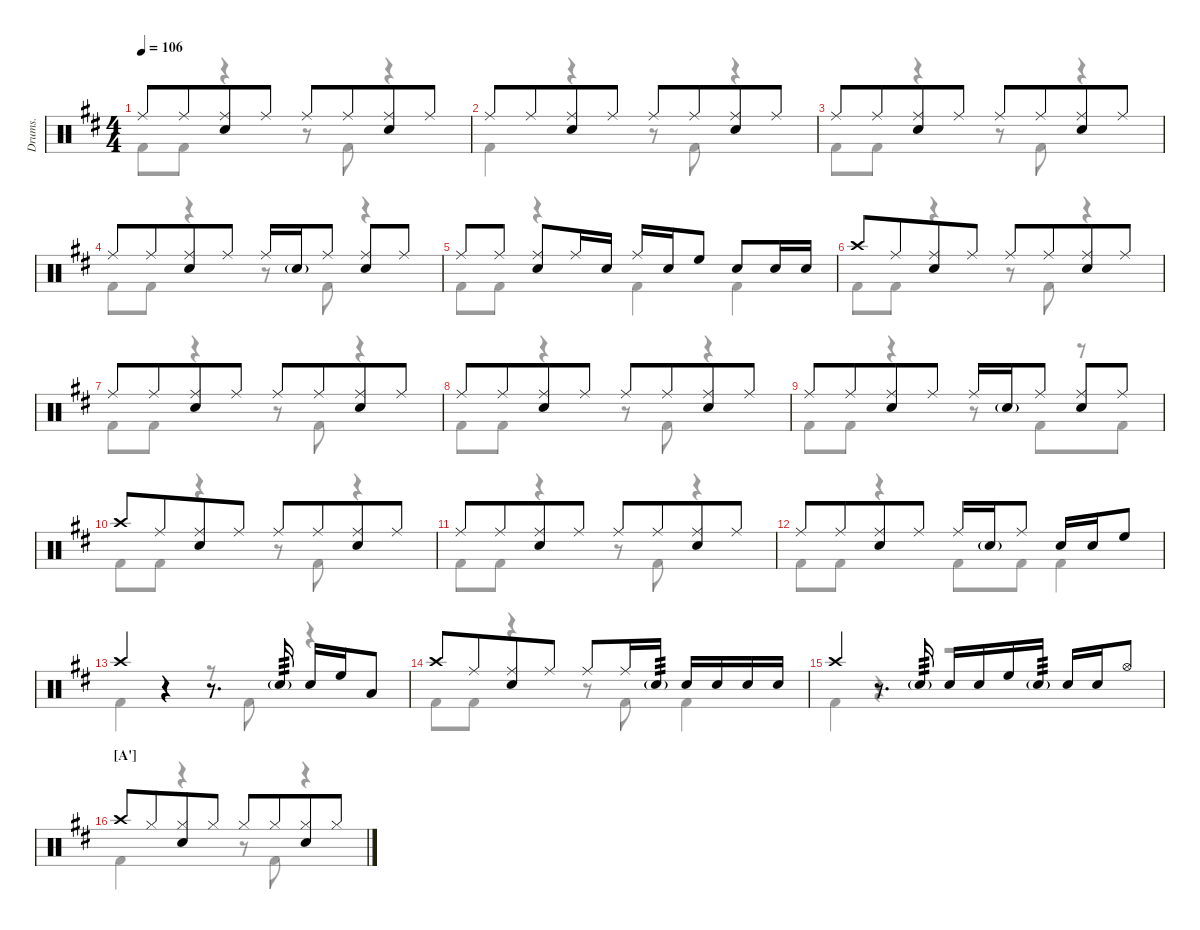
\defaultSystemsLayout 4
\hideDynamics
\track ("Drumkit" "Drums.") {defaultSystemsLayout 4 instrument percussion}
\staff {score}
\articulation defaults
\voice
\ts (4 4)
\tempo 106
\clef neutral
\ks d "Ride (middle)"{acc forcenatural}.8{dy mf beam merge} "Ride (middle)"{acc forcenatural}.8{beam merge}
("Ride (middle)"{acc forcenatural} "Snare (hit) 2"{acc forcenatural}).8 "Ride (middle)"{acc forcenatural}.8 "Ride (middle)"{acc forcenatural}.8{beam merge} "Ride (middle)"{acc forcenatural}.8{beam merge} ("Ride (middle)"{acc forcenatural} "Snare (hit) 2"{acc forcenatural}).8 "Ride (middle)"{acc forcenatural}.8 |
"Ride (middle)"{acc forcenatural}.8{beam merge} "Ride (middle)"{acc forcenatural}.8{beam merge} ("Ride (middle)"{acc forcenatural} "Snare (hit) 2"{acc forcenatural}).8 "Ride (middle)"{acc forcenatural}.8 "Ride (middle)"{acc forcenatural}.8{beam merge} "Ride (middle)"{acc forcenatural}.8{beam merge} ("Ride (middle)"{acc forcenatural} "Snare (hit) 2"{acc forcenatural}).8 "Ride (middle)"{acc forcenatural}.8 |
"Ride (middle)"{acc forcenatural}.8{beam merge} "Ride (middle)"{acc forcenatural}.8{beam merge} ("Ride (middle)"{acc forcenatural} "Snare (hit) 2"{acc forcenatural}).8 "Ride (middle)"{acc forcenatural}.8 "Ride (middle)"{acc forcenatural}.8{beam merge} "Ride (middle)"{acc forcenatural}.8{beam merge} ("Ride (middle)"{acc forcenatural} "Snare (hit) 2"{acc forcenatural}).8 "Ride (middle)"{acc forcenatural}.8 |
"Ride (middle)"{acc forcenatural}.8{beam merge} "Ride (middle)"{acc forcenatural}.8{beam merge} ("Ride (middle)"{acc forcenatural} "Snare (hit) 2"{acc forcenatural}).8 "Ride (middle)"{acc forcenatural}.8 "Ride (middle)"{acc forcenatural}.16 "Snare (hit) 2"{g acc forcenatural}.16 "Ride (middle)"{acc forcenatural}.8 ("Ride (middle)"{acc forcenatural} "Snare (hit) 2"{acc forcenatural}).8 "Ride (middle)"{acc forcenatural}.8 |
"Ride (middle)"{acc forcenatural}.8 "Ride (middle)"{acc forcenatural}.8 ("Ride (middle)"{acc forcenatural} "Snare (hit) 2"{acc forcenatural}).8 "Ride (middle)"{acc forcenatural}.16 "Snare (hit) 2"{acc forcenatural}.16 "Ride (middle)"{acc forcenatural}.16 "Snare (hit) 2"{acc forcenatural}.16 "High Floor Tom (hit)"{acc forcenatural}.8 "Snare (hit) 2"{acc forcenatural}.8 "Snare (hit) 2"{acc forcenatural}.16 "Snare (hit) 2"{acc forcenatural}.16 |
"Crash high (hit)"{acc forcenatural}.8{beam merge} "Ride (middle)"{acc forcenatural}.8{beam merge} ("Ride (middle)"{acc forcenatural} "Snare (hit) 2"{acc forcenatural}).8 "Ride (middle)"{acc forcenatural}.8 "Ride (middle)"{acc forcenatural}.8{beam merge} "Ride (middle)"{acc forcenatural}.8{beam merge} ("Ride (middle)"{acc forcenatural} "Snare (hit) 2"{acc forcenatural}).8 "Ride (middle)"{acc forcenatural}.8 |
"Ride (middle)"{acc forcenatural}.8{beam merge} "Ride (middle)"{acc forcenatural}.8{beam merge} ("Ride (middle)"{acc forcenatural} "Snare (hit) 2"{acc forcenatural}).8 "Ride (middle)"{acc forcenatural}.8 "Ride (middle)"{acc forcenatural}.8{beam merge} "Ride (middle)"{acc forcenatural}.8{beam merge} ("Ride (middle)"{acc forcenatural} "Snare (hit) 2"{acc forcenatural}).8 "Ride (middle)"{acc forcenatural}.8 |
"Ride (middle)"{acc forcenatural}.8{beam merge} "Ride (middle)"{acc forcenatural}.8{beam merge} ("Ride (middle)"{acc forcenatural} "Snare (hit) 2"{acc forcenatural}).8 "Ride (middle)"{acc forcenatural}.8 "Ride (middle)"{acc forcenatural}.8{beam merge} "Ride (middle)"{acc forcenatural}.8{beam merge} ("Ride (middle)"{acc forcenatural} "Snare (hit) 2"{acc forcenatural}).8 "Ride (middle)"{acc forcenatural}.8 |
"Ride (middle)"{acc forcenatural}.8{beam merge} "Ride (middle)"{acc forcenatural}.8{beam merge} ("Ride (middle)"{acc forcenatural} "Snare (hit) 2"{acc forcenatural}).8 "Ride (middle)"{acc forcenatural}.8 "Ride (middle)"{acc forcenatural}.16{beam merge} "Snare (hit) 2"{g acc forcenatural}.16 "Ride (middle)"{acc forcenatural}.8{beam split} ("Ride (middle)"{acc forcenatural} "Snare (hit) 2"{acc forcenatural}).8 "Ride (middle)"{acc forcenatural}.8 |
"Crash high (hit)"{acc forcenatural}.8{beam merge} "Ride (middle)"{acc forcenatural}.8{beam merge} ("Ride (middle)"{acc forcenatural} "Snare (hit) 2"{acc forcenatural}).8 "Ride (middle)"{acc forcenatural}.8 "Ride (middle)"{acc forcenatural}.8{beam merge} "Ride (middle)"{acc forcenatural}.8{beam merge} ("Ride (middle)"{acc forcenatural} "Snare (hit) 2"{acc forcenatural}).8 "Ride (middle)"{acc forcenatural}.8 |
"Ride (middle)"{acc forcenatural}.8{beam merge} "Ride (middle)"{acc forcenatural}.8{beam merge} ("Ride (middle)"{acc forcenatural} "Snare (hit) 2"{acc forcenatural}).8 "Ride (middle)"{acc forcenatural}.8 "Ride (middle)"{acc forcenatural}.8{beam merge} "Ride (middle)"{acc forcenatural}.8{beam merge} ("Ride (middle)"{acc forcenatural} "Snare (hit) 2"{acc forcenatural}).8 "Ride (middle)"{acc forcenatural}.8 |
"Ride (middle)"{acc forcenatural}.8{beam merge} "Ride (middle)"{acc forcenatural}.8{beam merge} ("Ride (middle)"{acc forcenatural} "Snare (hit) 2"{acc forcenatural}).8 "Ride (middle)"{acc forcenatural}.8 "Ride (middle)"{acc forcenatural}.16 "Snare (hit) 2"{g acc forcenatural}.16 "Ride (middle)"{acc forcenatural}.8 "Snare (hit) 2"{acc forcenatural}.16 "Snare (hit) 2"{acc forcenatural}.16 "High Floor Tom (hit)"{acc forcenatural}.8 |
"Crash high (hit)"{acc forcenatural}.4 r.4 r.8{d} "Snare (hit) 2"{g acc forcenatural}.16{tp 3} "Snare (hit) 2"{acc forcenatural}.16 "High Floor Tom (hit)"{acc forcenatural}.16 "Low Tom (hit)"{acc forcenatural}.8 |
"Crash high (hit)"{acc forcenatural}.8{beam merge} "Ride (middle)"{acc forcenatural}.8{beam merge} ("Ride (middle)"{acc forcenatural} "Snare (hit) 2"{acc forcenatural}).8 "Ride (middle)"{acc forcenatural}.8 "Ride (middle)"{acc forcenatural}.8 "Ride (middle)"{acc forcenatural}.16 "Snare (hit) 2"{g acc forcenatural}.16{tp 3} "Snare (hit) 2"{acc forcenatural}.16 "Snare (hit) 2"{acc forcenatural}.16 "Snare (hit) 2"{acc forcenatural}.16 "Snare (hit) 2"{acc forcenatural}.16 |
"Crash high (hit)"{acc forcenatural}.4 r.8{d} "Snare (hit) 2"{g acc forcenatural}.16{tp 3} "Snare (hit) 2"{acc forcenatural}.16 "Snare (hit) 2"{acc forcenatural}.16 "High Floor Tom (hit)"{acc forcenatural}.16 "Snare (hit) 2"{g acc forcenatural}.16{tp 3} "Snare (hit) 2"{acc forcenatural}.16 "Snare (hit) 2"{acc forcenatural}.16 "Hi-Hat (open)"{acc forcenatural}.8 |
\section ("A'" "")
"Crash high (hit)"{acc forcenatural}.8 "Hi-Hat (closed)"{acc forcenatural}.8{beam merge} ("Hi-Hat (closed)"{acc forcenatural} "Snare (hit) 2"{acc forcenatural}).8 "Hi-Hat (closed)"{acc forcenatural}.8 "Hi-Hat (closed)"{acc forcenatural}.8 "Hi-Hat (closed)"{acc forcenatural}.8{beam merge} ("Hi-Hat (closed)"{acc forcenatural} "Snare (hit) 2"{acc forcenatural}).8 "Hi-Hat (closed)"{acc forcenatural}.8
\voice
\clef neutral
\ottava regular
\simile none
\ks d "Kick (hit) 2"{acc forcenatural}.8{dy mf} "Kick (hit) 2"{acc forcenatural}.8
r.4 r.8 "Kick (hit) 2"{acc forcenatural}.8 r.4 |
"Kick (hit) 2"{acc forcenatural}.4 r.4 r.8 "Kick (hit) 2"{acc forcenatural}.8 r.4 |
"Kick (hit) 2"{acc forcenatural}.8 "Kick (hit) 2"{acc forcenatural}.8 r.4 r.8 "Kick (hit) 2"{acc forcenatural}.8 r.4 |
"Kick (hit) 2"{acc forcenatural}.8 "Kick (hit) 2"{acc forcenatural}.8 r.4 r.8 "Kick (hit) 2"{acc forcenatural}.8 r.4 |
"Kick (hit) 2"{acc forcenatural}.8 "Kick (hit) 2"{acc forcenatural}.8 r.4 "Kick (hit) 2"{acc forcenatural}.4 "Kick (hit) 2"{acc forcenatural}.4 |
"Kick (hit) 2"{acc forcenatural}.8 "Kick (hit) 2"{acc forcenatural}.8 r.4 r.8 "Kick (hit) 2"{acc forcenatural}.8 r.4 |
"Kick (hit) 2"{acc forcenatural}.8 "Kick (hit) 2"{acc forcenatural}.8 r.4 r.8 "Kick (hit) 2"{acc forcenatural}.8 r.4 |
"Kick (hit) 2"{acc forcenatural}.8 "Kick (hit) 2"{acc forcenatural}.8 r.4 r.8 "Kick (hit) 2"{acc forcenatural}.8 r.4 |
"Kick (hit) 2"{acc forcenatural}.8 "Kick (hit) 2"{acc forcenatural}.8 r.4 r.8 "Kick (hit) 2"{acc forcenatural}.8{beam merge} r.8{beam merge} "Kick (hit) 2"{acc forcenatural}.8 |
"Kick (hit) 2"{acc forcenatural}.8 "Kick (hit) 2"{acc forcenatural}.8 r.4 r.8 "Kick (hit) 2"{acc forcenatural}.8 r.4 |
"Kick (hit) 2"{acc forcenatural}.8 "Kick (hit) 2"{acc forcenatural}.8 r.4 r.8 "Kick (hit) 2"{acc forcenatural}.8 r.4 |
"Kick (hit) 2"{acc forcenatural}.8 "Kick (hit) 2"{acc forcenatural}.8 r.4 "Kick (hit) 2"{acc forcenatural}.8 "Kick (hit) 2"{acc forcenatural}.8 "Kick (hit) 2"{acc forcenatural}.4 |
"Kick (hit) 2"{acc forcenatural}.4 r.4 r.8 "Kick (hit) 2"{acc forcenatural}.8 r.4 |
"Kick (hit) 2"{acc forcenatural}.8 "Kick (hit) 2"{acc forcenatural}.8 r.4 r.8 "Kick (hit) 2"{acc forcenatural}.8 "Kick (hit) 2"{acc forcenatural}.4 |
"Kick (hit) 2"{acc forcenatural}.4 r.4 r.2 |
"Kick (hit) 2"{acc forcenatural}.4 r.4 r.8 "Kick (hit) 2"{acc forcenatural}.8 r.4
